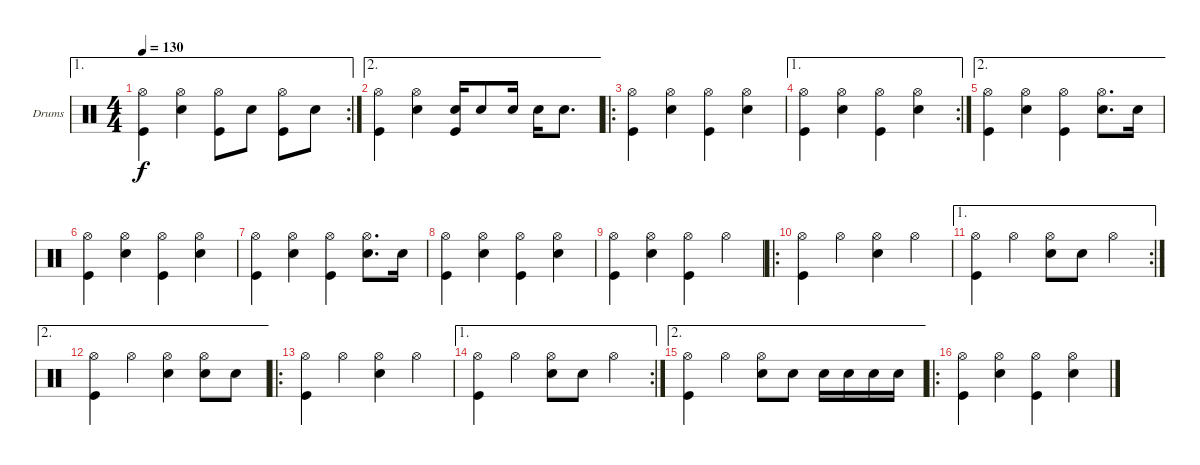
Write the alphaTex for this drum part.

\bracketExtendMode groupsimilarinstruments
\firstSystemTrackNameOrientation horizontal
\otherSystemsTrackNameOrientation horizontal
\track ("Drumkit" "Drums") {instrument percussion}
\staff {score}
\articulation defaults
\ae 1
\rc 2
\ts (4 4)
\tempo 130
\clef neutral
\ks c
("Hi-Hat (open)" "Kick (hit)").4{dy f} ("Hi-Hat (open)" "Snare (hit) 2").4 ("Hi-Hat (open)" "Kick (hit)").8 "Snare (hit) 2".8 ("Hi-Hat (open)" "Kick (hit)").8 "Snare (hit) 2".8 |
\ae 2
("Hi-Hat (open)" "Kick (hit)").4 ("Hi-Hat (open)" "Snare (hit) 2").4 ("Snare (hit) 2" "Kick (hit)").16 "Snare (hit) 2".8 "Snare (hit) 2".16 "Snare (hit) 2".16 "Snare (hit) 2".8{d} |
\ro
("Hi-Hat (open)" "Kick (hit)").4 ("Hi-Hat (open)" "Snare (hit) 2").4 ("Hi-Hat (open)" "Kick (hit)").4 ("Hi-Hat (open)" "Snare (hit) 2").4 |
\ae 1
\rc 2
("Hi-Hat (open)" "Kick (hit)").4 ("Hi-Hat (open)" "Snare (hit) 2").4 ("Hi-Hat (open)" "Kick (hit)").4 ("Hi-Hat (open)" "Snare (hit) 2").4 |
\ae 2
("Hi-Hat (open)" "Kick (hit)").4 ("Hi-Hat (open)" "Snare (hit) 2").4 ("Hi-Hat (open)" "Kick (hit)").4 ("Hi-Hat (open)" "Snare (hit) 2").8{d} "Snare (hit) 2".16 |
("Hi-Hat (open)" "Kick (hit)").4 ("Hi-Hat (open)" "Snare (hit) 2").4 ("Hi-Hat (open)" "Kick (hit)").4 ("Hi-Hat (open)" "Snare (hit) 2").4 |
("Hi-Hat (open)" "Kick (hit)").4 ("Hi-Hat (open)" "Snare (hit) 2").4 ("Hi-Hat (open)" "Kick (hit)").4 ("Hi-Hat (open)" "Snare (hit) 2").8{d} "Snare (hit) 2".16 |
("Hi-Hat (open)" "Kick (hit)").4 ("Hi-Hat (open)" "Snare (hit) 2").4 ("Hi-Hat (open)" "Kick (hit)").4 ("Hi-Hat (open)" "Snare (hit) 2").4 |
("Hi-Hat (open)" "Kick (hit)").4 ("Hi-Hat (open)" "Snare (hit) 2").4 ("Hi-Hat (open)" "Kick (hit)").4 "Hi-Hat (open)".4 |
\ro
("Hi-Hat (open)" "Kick (hit)").4 "Hi-Hat (open)".4 ("Hi-Hat (open)" "Snare (hit) 2").4 "Hi-Hat (open)".4 |
\ae 1
\rc 2
("Hi-Hat (open)" "Kick (hit)").4 "Hi-Hat (open)".4 ("Hi-Hat (open)" "Snare (hit) 2").8 "Snare (hit) 2".8 "Hi-Hat (open)".4 |
\ae 2
("Hi-Hat (open)" "Kick (hit)").4 "Hi-Hat (open)".4 ("Hi-Hat (open)" "Snare (hit) 2").4 ("Hi-Hat (open)" "Snare (hit) 2").8 "Snare (hit) 2".8 |
\ro
("Hi-Hat (open)" "Kick (hit)").4 "Hi-Hat (open)".4 ("Hi-Hat (open)" "Snare (hit) 2").4 "Hi-Hat (open)".4 |
\ae 1
\rc 2
("Hi-Hat (open)" "Kick (hit)").4 "Hi-Hat (open)".4 ("Hi-Hat (open)" "Snare (hit) 2").8 "Snare (hit) 2".8 "Hi-Hat (open)".4 |
\ae 2
("Hi-Hat (open)" "Kick (hit)").4 "Hi-Hat (open)".4 ("Hi-Hat (open)" "Snare (hit) 2").8 "Snare (hit) 2".8 "Snare (hit) 2".16 "Snare (hit) 2".16 "Snare (hit) 2".16 "Snare (hit) 2".16 |
\ro
("Hi-Hat (open)" "Kick (hit)").4 ("Hi-Hat (open)" "Snare (hit) 2").4 ("Hi-Hat (open)" "Kick (hit)").4 ("Hi-Hat (open)" "Snare (hit) 2").4
